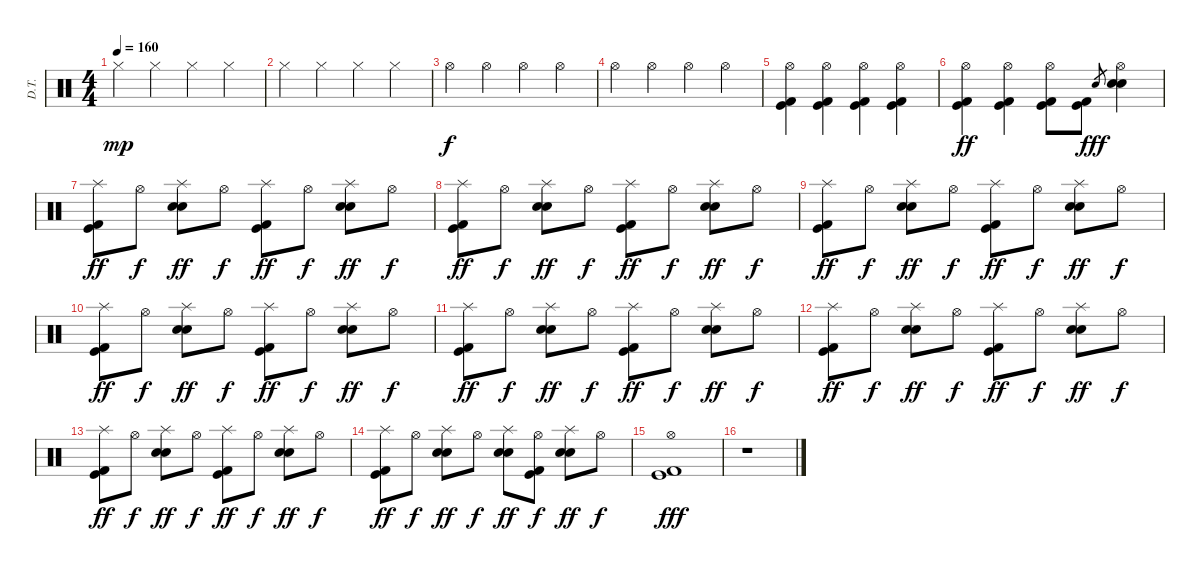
\track ("D.T." "D.T.") {instrument percussion}
\staff {score}
\articulation defaults
\ts (4 4)
\tempo 160
\clef neutral
\ks c "Hi-Hat (closed)".4{dy mp} "Hi-Hat (closed)".4 "Hi-Hat (closed)".4 "Hi-Hat (closed)".4
|
"Hi-Hat (closed)".4 "Hi-Hat (closed)".4 "Hi-Hat (closed)".4 "Hi-Hat (closed)".4 |
"Hi-Hat (open)".4{dy f} "Hi-Hat (open)".4 "Hi-Hat (open)".4 "Hi-Hat (open)".4 |
"Hi-Hat (open)".4 "Hi-Hat (open)".4 "Hi-Hat (open)".4 "Hi-Hat (open)".4 |
("Hi-Hat (open)" "Kick (hit)" "Kick (hit) 2").4 ("Hi-Hat (open)" "Kick (hit)" "Kick (hit) 2").4 ("Hi-Hat (open)" "Kick (hit)" "Kick (hit) 2").4 ("Hi-Hat (open)" "Kick (hit)" "Kick (hit) 2").4 |
("Hi-Hat (open)" "Kick (hit)" "Kick (hit) 2").4{dy ff} ("Hi-Hat (open)" "Kick (hit)" "Kick (hit) 2").4 ("Hi-Hat (open)" "Kick (hit)" "Kick (hit) 2").8 ("Kick (hit)" "Kick (hit) 2").8 "Electric Snare (hit)".8{gr dy fff} ("Hi-Hat (open)" "Snare (hit) 2" "Electric Snare (hit)").4 |
("Splash (hit)" "Kick (hit)" "Kick (hit) 2").8{dy ff} "Hi-Hat (open)".8{dy f} ("Splash (hit)" "Snare (hit) 2" "Electric Snare (hit)").8{dy ff} "Hi-Hat (open)".8{dy f} ("Splash (hit)" "Kick (hit)" "Kick (hit) 2").8{dy ff} "Hi-Hat (open)".8{dy f} ("Splash (hit)" "Snare (hit) 2" "Electric Snare (hit)").8{dy ff} "Hi-Hat (open)".8{dy f} |
("Splash (hit)" "Kick (hit)" "Kick (hit) 2").8{dy ff} "Hi-Hat (open)".8{dy f} ("Splash (hit)" "Snare (hit) 2" "Electric Snare (hit)").8{dy ff} "Hi-Hat (open)".8{dy f} ("Splash (hit)" "Kick (hit)" "Kick (hit) 2").8{dy ff} "Hi-Hat (open)".8{dy f} ("Splash (hit)" "Snare (hit) 2" "Electric Snare (hit)").8{dy ff} "Hi-Hat (open)".8{dy f} |
("Splash (hit)" "Kick (hit)" "Kick (hit) 2").8{dy ff} "Hi-Hat (open)".8{dy f} ("Splash (hit)" "Snare (hit) 2" "Electric Snare (hit)").8{dy ff} "Hi-Hat (open)".8{dy f} ("Splash (hit)" "Kick (hit)" "Kick (hit) 2").8{dy ff} "Hi-Hat (open)".8{dy f} ("Splash (hit)" "Snare (hit) 2" "Electric Snare (hit)").8{dy ff} "Hi-Hat (open)".8{dy f} |
("Splash (hit)" "Kick (hit)" "Kick (hit) 2").8{dy ff} "Hi-Hat (open)".8{dy f} ("Splash (hit)" "Snare (hit) 2" "Electric Snare (hit)").8{dy ff} "Hi-Hat (open)".8{dy f} ("Splash (hit)" "Kick (hit)" "Kick (hit) 2").8{dy ff} "Hi-Hat (open)".8{dy f} ("Splash (hit)" "Snare (hit) 2" "Electric Snare (hit)").8{dy ff} "Hi-Hat (open)".8{dy f} |
("Splash (hit)" "Kick (hit)" "Kick (hit) 2").8{dy ff} "Hi-Hat (open)".8{dy f} ("Splash (hit)" "Snare (hit) 2" "Electric Snare (hit)").8{dy ff} "Hi-Hat (open)".8{dy f} ("Splash (hit)" "Kick (hit)" "Kick (hit) 2").8{dy ff} "Hi-Hat (open)".8{dy f} ("Splash (hit)" "Snare (hit) 2" "Electric Snare (hit)").8{dy ff} "Hi-Hat (open)".8{dy f} |
("Splash (hit)" "Kick (hit)" "Kick (hit) 2").8{dy ff} "Hi-Hat (open)".8{dy f} ("Splash (hit)" "Snare (hit) 2" "Electric Snare (hit)").8{dy ff} "Hi-Hat (open)".8{dy f} ("Splash (hit)" "Kick (hit)" "Kick (hit) 2").8{dy ff} "Hi-Hat (open)".8{dy f} ("Splash (hit)" "Snare (hit) 2" "Electric Snare (hit)").8{dy ff} "Hi-Hat (open)".8{dy f} |
("Splash (hit)" "Kick (hit)" "Kick (hit) 2").8{dy ff} "Hi-Hat (open)".8{dy f} ("Splash (hit)" "Snare (hit) 2" "Electric Snare (hit)").8{dy ff} "Hi-Hat (open)".8{dy f} ("Splash (hit)" "Kick (hit)" "Kick (hit) 2").8{dy ff} "Hi-Hat (open)".8{dy f} ("Splash (hit)" "Snare (hit) 2" "Electric Snare (hit)").8{dy ff} "Hi-Hat (open)".8{dy f} |
("Splash (hit)" "Kick (hit)" "Kick (hit) 2").8{dy ff} "Hi-Hat (open)".8{dy f} ("Splash (hit)" "Snare (hit) 2" "Electric Snare (hit)").8{dy ff} "Hi-Hat (open)".8{dy f} ("Splash (hit)" "Snare (hit) 2" "Electric Snare (hit)").8{dy ff} ("Hi-Hat (open)" "Kick (hit)" "Kick (hit) 2").8{dy f} ("Splash (hit)" "Snare (hit) 2" "Electric Snare (hit)").8{dy ff} "Hi-Hat (open)".8{dy f} |
("Hi-Hat (open)" "Kick (hit)" "Kick (hit) 2").1{dy fff} |
r.1
